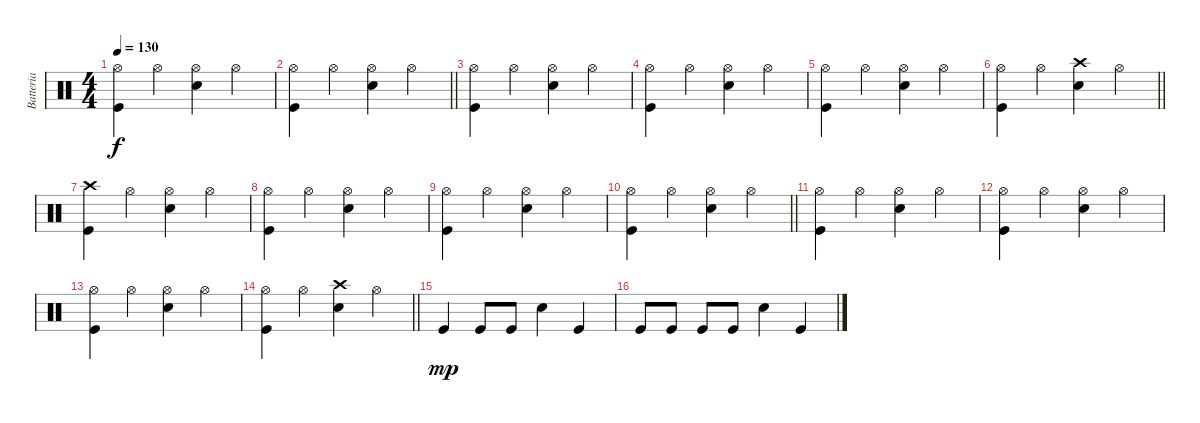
\track ("Batteria" "Batteria") {instrument percussion}
\staff {score}
\articulation defaults
\ts (4 4)
\tempo 130
\clef neutral
\ks c
("Kick (hit)" "Hi-Hat (open)").4{dy f} "Hi-Hat (open)".4 ("Snare (hit) 2" "Hi-Hat (open)").4 "Hi-Hat (open)".4 |
\barLineRight lightlight
("Kick (hit)" "Hi-Hat (open)").4 "Hi-Hat (open)".4 ("Snare (hit) 2" "Hi-Hat (open)").4 "Hi-Hat (open)".4 |
("Kick (hit)" "Hi-Hat (open)").4 "Hi-Hat (open)".4 ("Snare (hit) 2" "Hi-Hat (open)").4 "Hi-Hat (open)".4 |
("Kick (hit)" "Hi-Hat (open)").4 "Hi-Hat (open)".4 ("Snare (hit) 2" "Hi-Hat (open)").4 "Hi-Hat (open)".4 |
("Kick (hit)" "Hi-Hat (open)").4 "Hi-Hat (open)".4 ("Snare (hit) 2" "Hi-Hat (open)").4 "Hi-Hat (open)".4 |
\barLineRight lightlight
("Kick (hit)" "Hi-Hat (open)").4 "Hi-Hat (open)".4 ("Snare (hit) 2" "Crash high (hit)").4 "Hi-Hat (open)".4 |
("Kick (hit)" "Crash high (hit)").4 "Hi-Hat (open)".4 ("Snare (hit) 2" "Hi-Hat (open)").4 "Hi-Hat (open)".4 |
("Kick (hit)" "Hi-Hat (open)").4 "Hi-Hat (open)".4 ("Snare (hit) 2" "Hi-Hat (open)").4 "Hi-Hat (open)".4 |
("Kick (hit)" "Hi-Hat (open)").4 "Hi-Hat (open)".4 ("Snare (hit) 2" "Hi-Hat (open)").4 "Hi-Hat (open)".4 |
\barLineRight lightlight
("Kick (hit)" "Hi-Hat (open)").4 "Hi-Hat (open)".4 ("Snare (hit) 2" "Hi-Hat (open)").4 "Hi-Hat (open)".4 |
("Kick (hit)" "Hi-Hat (open)").4 "Hi-Hat (open)".4 ("Snare (hit) 2" "Hi-Hat (open)").4 "Hi-Hat (open)".4 |
("Kick (hit)" "Hi-Hat (open)").4 "Hi-Hat (open)".4 ("Snare (hit) 2" "Hi-Hat (open)").4 "Hi-Hat (open)".4 |
("Kick (hit)" "Hi-Hat (open)").4 "Hi-Hat (open)".4 ("Snare (hit) 2" "Hi-Hat (open)").4 "Hi-Hat (open)".4 |
\barLineRight lightlight
("Kick (hit)" "Hi-Hat (open)").4 "Hi-Hat (open)".4 ("Snare (hit) 2" "Crash high (hit)").4 "Hi-Hat (open)".4 |
"Kick (hit)".4{dy mp} "Kick (hit)".8 "Kick (hit)".8 "Snare (hit) 2".4 "Kick (hit)".4 |
"Kick (hit)".8 "Kick (hit)".8 "Kick (hit)".8 "Kick (hit)".8 "Snare (hit) 2".4 "Kick (hit)".4
